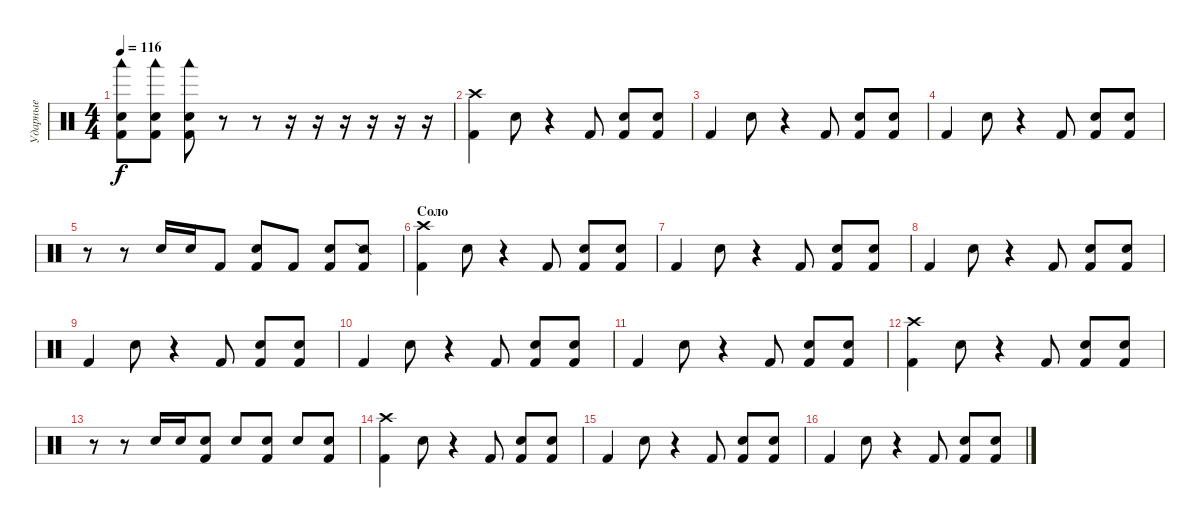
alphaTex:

\track ("Ударные" "Ударные") {instrument percussion}
\staff {score}
\articulation defaults
\ts (4 4)
\tempo 116
\clef neutral
\ks c
("Electric Snare (hit)" "Kick (hit) 2" "Woodblock low (hit)").8{dy f} ("Electric Snare (hit)" "Kick (hit) 2" "Woodblock low (hit)").8 ("Electric Snare (hit)" "Kick (hit) 2" "Woodblock low (hit)").8 r.8 r.8 r.16 r.16 r.16 r.16 r.16 r.16 |
("Crash high (hit)" "Kick (hit) 2").4 "Electric Snare (hit)".8 r.4 "Kick (hit) 2".8 ("Electric Snare (hit)" "Kick (hit) 2").8 ("Electric Snare (hit)" "Kick (hit) 2").8 |
"Kick (hit) 2".4 "Electric Snare (hit)".8 r.4 "Kick (hit) 2".8 ("Electric Snare (hit)" "Kick (hit) 2").8 ("Electric Snare (hit)" "Kick (hit) 2").8 |
"Kick (hit) 2".4 "Electric Snare (hit)".8 r.4 "Kick (hit) 2".8 ("Electric Snare (hit)" "Kick (hit) 2").8 ("Electric Snare (hit)" "Kick (hit) 2").8 |
r.8 r.8 "Electric Snare (hit)".16 "Electric Snare (hit)".16 "Kick (hit) 2".8 ("Electric Snare (hit)" "Kick (hit) 2").8 "Kick (hit) 2".8 ("Snare (hit) 2" "Kick (hit) 2").8 ("Snare (side stick) 2" "Kick (hit) 2").8 |
\section ("" "Соло")
("Crash high (hit)" "Kick (hit) 2").4 "Electric Snare (hit)".8 r.4 "Kick (hit) 2".8 ("Electric Snare (hit)" "Kick (hit) 2").8 ("Electric Snare (hit)" "Kick (hit) 2").8 |
"Kick (hit) 2".4 "Electric Snare (hit)".8 r.4 "Kick (hit) 2".8 ("Electric Snare (hit)" "Kick (hit) 2").8 ("Electric Snare (hit)" "Kick (hit) 2").8 |
"Kick (hit) 2".4 "Electric Snare (hit)".8 r.4 "Kick (hit) 2".8 ("Electric Snare (hit)" "Kick (hit) 2").8 ("Electric Snare (hit)" "Kick (hit) 2").8 |
"Kick (hit) 2".4 "Electric Snare (hit)".8 r.4 "Kick (hit) 2".8 ("Electric Snare (hit)" "Kick (hit) 2").8 ("Electric Snare (hit)" "Kick (hit) 2").8 |
"Kick (hit) 2".4 "Electric Snare (hit)".8 r.4 "Kick (hit) 2".8 ("Electric Snare (hit)" "Kick (hit) 2").8 ("Electric Snare (hit)" "Kick (hit) 2").8 |
"Kick (hit) 2".4 "Electric Snare (hit)".8 r.4 "Kick (hit) 2".8 ("Electric Snare (hit)" "Kick (hit) 2").8 ("Electric Snare (hit)" "Kick (hit) 2").8 |
("Crash high (hit)" "Kick (hit) 2").4 "Electric Snare (hit)".8 r.4 "Kick (hit) 2".8 ("Electric Snare (hit)" "Kick (hit) 2").8 ("Electric Snare (hit)" "Kick (hit) 2").8 |
r.8 r.8 "Electric Snare (hit)".16 "Electric Snare (hit)".16 ("Electric Snare (hit)" "Kick (hit) 2").8 "Electric Snare (hit)".8 ("Electric Snare (hit)" "Kick (hit) 2").8 "Electric Snare (hit)".8 ("Electric Snare (hit)" "Kick (hit) 2").8 |
("Crash high (hit)" "Kick (hit) 2").4 "Electric Snare (hit)".8 r.4 "Kick (hit) 2".8 ("Electric Snare (hit)" "Kick (hit) 2").8 ("Electric Snare (hit)" "Kick (hit) 2").8 |
"Kick (hit) 2".4 "Electric Snare (hit)".8 r.4 "Kick (hit) 2".8 ("Electric Snare (hit)" "Kick (hit) 2").8 ("Electric Snare (hit)" "Kick (hit) 2").8 |
"Kick (hit) 2".4 "Electric Snare (hit)".8 r.4 "Kick (hit) 2".8 ("Electric Snare (hit)" "Kick (hit) 2").8 ("Electric Snare (hit)" "Kick (hit) 2").8
